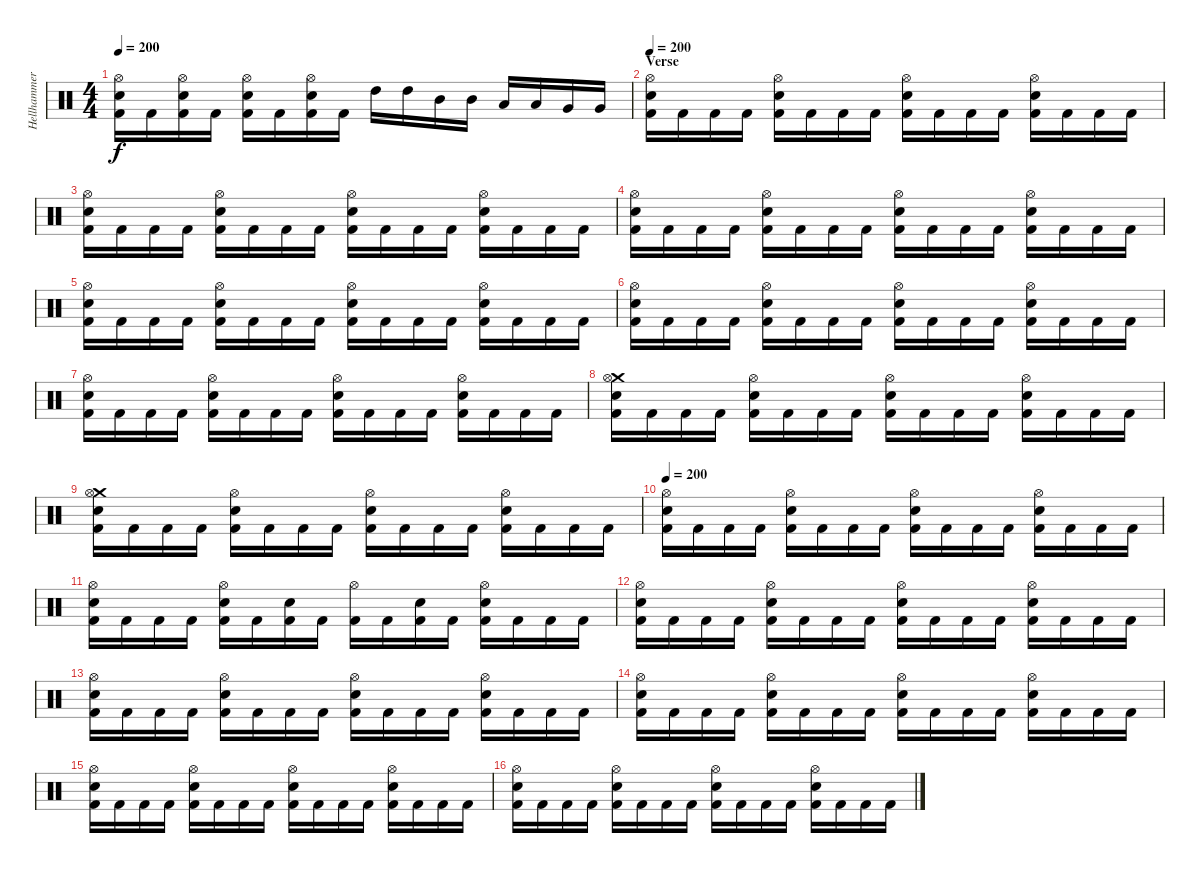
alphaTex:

\track ("Hellhammer" "Hellhammer") {instrument percussion}
\staff {score}
\articulation defaults
\ts (4 4)
\tempo 200
\clef neutral
\ks c
("Hi-Hat (open)" "Electric Snare (hit)" "Kick (hit) 2").16{dy f} "Kick (hit) 2".16 ("Hi-Hat (open)" "Electric Snare (hit)" "Kick (hit) 2").16 "Kick (hit) 2".16 ("Hi-Hat (open)" "Electric Snare (hit)" "Kick (hit) 2").16 "Kick (hit) 2".16 ("Hi-Hat (open)" "Electric Snare (hit)" "Kick (hit) 2").16 "Kick (hit) 2".16 "High Tom (hit)".16 "High Tom (hit)".16 "Mid Tom (hit)".16 "Mid Tom (hit)".16 "Low Tom (hit)".16 "Low Tom (hit)".16 "Very Low Tom (hit)".16 "Very Low Tom (hit)".16 |
\section ("" "Verse")
\tempo 200
("Hi-Hat (open)" "Electric Snare (hit)" "Kick (hit) 2").16 "Kick (hit) 2".16 "Kick (hit) 2".16 "Kick (hit) 2".16 ("Hi-Hat (open)" "Electric Snare (hit)" "Kick (hit) 2").16 "Kick (hit) 2".16 "Kick (hit) 2".16 "Kick (hit) 2".16 ("Hi-Hat (open)" "Electric Snare (hit)" "Kick (hit) 2").16 "Kick (hit) 2".16 "Kick (hit) 2".16 "Kick (hit) 2".16 ("Hi-Hat (open)" "Electric Snare (hit)" "Kick (hit) 2").16 "Kick (hit) 2".16 "Kick (hit) 2".16 "Kick (hit) 2".16 |
("Hi-Hat (open)" "Electric Snare (hit)" "Kick (hit) 2").16 "Kick (hit) 2".16 "Kick (hit) 2".16 "Kick (hit) 2".16 ("Hi-Hat (open)" "Electric Snare (hit)" "Kick (hit) 2").16 "Kick (hit) 2".16 "Kick (hit) 2".16 "Kick (hit) 2".16 ("Hi-Hat (open)" "Electric Snare (hit)" "Kick (hit) 2").16 "Kick (hit) 2".16 "Kick (hit) 2".16 "Kick (hit) 2".16 ("Hi-Hat (open)" "Electric Snare (hit)" "Kick (hit) 2").16 "Kick (hit) 2".16 "Kick (hit) 2".16 "Kick (hit) 2".16 |
("Hi-Hat (open)" "Electric Snare (hit)" "Kick (hit) 2").16 "Kick (hit) 2".16 "Kick (hit) 2".16 "Kick (hit) 2".16 ("Hi-Hat (open)" "Electric Snare (hit)" "Kick (hit) 2").16 "Kick (hit) 2".16 "Kick (hit) 2".16 "Kick (hit) 2".16 ("Hi-Hat (open)" "Electric Snare (hit)" "Kick (hit) 2").16 "Kick (hit) 2".16 "Kick (hit) 2".16 "Kick (hit) 2".16 ("Hi-Hat (open)" "Electric Snare (hit)" "Kick (hit) 2").16 "Kick (hit) 2".16 "Kick (hit) 2".16 "Kick (hit) 2".16 |
("Hi-Hat (open)" "Electric Snare (hit)" "Kick (hit) 2").16 "Kick (hit) 2".16 "Kick (hit) 2".16 "Kick (hit) 2".16 ("Hi-Hat (open)" "Electric Snare (hit)" "Kick (hit) 2").16 "Kick (hit) 2".16 "Kick (hit) 2".16 "Kick (hit) 2".16 ("Hi-Hat (open)" "Electric Snare (hit)" "Kick (hit) 2").16 "Kick (hit) 2".16 "Kick (hit) 2".16 "Kick (hit) 2".16 ("Hi-Hat (open)" "Electric Snare (hit)" "Kick (hit) 2").16 "Kick (hit) 2".16 "Kick (hit) 2".16 "Kick (hit) 2".16 |
("Hi-Hat (open)" "Electric Snare (hit)" "Kick (hit) 2").16 "Kick (hit) 2".16 "Kick (hit) 2".16 "Kick (hit) 2".16 ("Hi-Hat (open)" "Electric Snare (hit)" "Kick (hit) 2").16 "Kick (hit) 2".16 "Kick (hit) 2".16 "Kick (hit) 2".16 ("Hi-Hat (open)" "Electric Snare (hit)" "Kick (hit) 2").16 "Kick (hit) 2".16 "Kick (hit) 2".16 "Kick (hit) 2".16 ("Hi-Hat (open)" "Electric Snare (hit)" "Kick (hit) 2").16 "Kick (hit) 2".16 "Kick (hit) 2".16 "Kick (hit) 2".16 |
("Hi-Hat (open)" "Electric Snare (hit)" "Kick (hit) 2").16 "Kick (hit) 2".16 "Kick (hit) 2".16 "Kick (hit) 2".16 ("Hi-Hat (open)" "Electric Snare (hit)" "Kick (hit) 2").16 "Kick (hit) 2".16 "Kick (hit) 2".16 "Kick (hit) 2".16 ("Hi-Hat (open)" "Electric Snare (hit)" "Kick (hit) 2").16 "Kick (hit) 2".16 "Kick (hit) 2".16 "Kick (hit) 2".16 ("Hi-Hat (open)" "Electric Snare (hit)" "Kick (hit) 2").16 "Kick (hit) 2".16 "Kick (hit) 2".16 "Kick (hit) 2".16 |
("Crash medium (hit)" "Hi-Hat (open)" "Electric Snare (hit)" "Kick (hit) 2").16 "Kick (hit) 2".16 "Kick (hit) 2".16 "Kick (hit) 2".16 ("Hi-Hat (open)" "Electric Snare (hit)" "Kick (hit) 2").16 "Kick (hit) 2".16 "Kick (hit) 2".16 "Kick (hit) 2".16 ("Hi-Hat (open)" "Electric Snare (hit)" "Kick (hit) 2").16 "Kick (hit) 2".16 "Kick (hit) 2".16 "Kick (hit) 2".16 ("Hi-Hat (open)" "Electric Snare (hit)" "Kick (hit) 2").16 "Kick (hit) 2".16 "Kick (hit) 2".16 "Kick (hit) 2".16 |
("Crash medium (hit)" "Hi-Hat (open)" "Electric Snare (hit)" "Kick (hit) 2").16 "Kick (hit) 2".16 "Kick (hit) 2".16 "Kick (hit) 2".16 ("Hi-Hat (open)" "Electric Snare (hit)" "Kick (hit) 2").16 "Kick (hit) 2".16 "Kick (hit) 2".16 "Kick (hit) 2".16 ("Hi-Hat (open)" "Electric Snare (hit)" "Kick (hit) 2").16 "Kick (hit) 2".16 "Kick (hit) 2".16 "Kick (hit) 2".16 ("Hi-Hat (open)" "Electric Snare (hit)" "Kick (hit) 2").16 "Kick (hit) 2".16 "Kick (hit) 2".16 "Kick (hit) 2".16 |
\tempo 200
("Hi-Hat (open)" "Electric Snare (hit)" "Kick (hit) 2").16 "Kick (hit) 2".16 "Kick (hit) 2".16 "Kick (hit) 2".16 ("Hi-Hat (open)" "Electric Snare (hit)" "Kick (hit) 2").16 "Kick (hit) 2".16 "Kick (hit) 2".16 "Kick (hit) 2".16 ("Hi-Hat (open)" "Electric Snare (hit)" "Kick (hit) 2").16 "Kick (hit) 2".16 "Kick (hit) 2".16 "Kick (hit) 2".16 ("Hi-Hat (open)" "Electric Snare (hit)" "Kick (hit) 2").16 "Kick (hit) 2".16 "Kick (hit) 2".16 "Kick (hit) 2".16 |
("Hi-Hat (open)" "Electric Snare (hit)" "Kick (hit) 2").16 "Kick (hit) 2".16 "Kick (hit) 2".16 "Kick (hit) 2".16 ("Hi-Hat (open)" "Electric Snare (hit)" "Kick (hit) 2").16 "Kick (hit) 2".16 ("Electric Snare (hit)" "Kick (hit) 2").16 "Kick (hit) 2".16 ("Hi-Hat (open)" "Kick (hit) 2").16 "Kick (hit) 2".16 ("Electric Snare (hit)" "Kick (hit) 2").16 "Kick (hit) 2".16 ("Hi-Hat (open)" "Electric Snare (hit)" "Kick (hit) 2").16 "Kick (hit) 2".16 "Kick (hit) 2".16 "Kick (hit) 2".16 |
("Hi-Hat (open)" "Electric Snare (hit)" "Kick (hit) 2").16 "Kick (hit) 2".16 "Kick (hit) 2".16 "Kick (hit) 2".16 ("Hi-Hat (open)" "Electric Snare (hit)" "Kick (hit) 2").16 "Kick (hit) 2".16 "Kick (hit) 2".16 "Kick (hit) 2".16 ("Hi-Hat (open)" "Electric Snare (hit)" "Kick (hit) 2").16 "Kick (hit) 2".16 "Kick (hit) 2".16 "Kick (hit) 2".16 ("Hi-Hat (open)" "Electric Snare (hit)" "Kick (hit) 2").16 "Kick (hit) 2".16 "Kick (hit) 2".16 "Kick (hit) 2".16 |
("Hi-Hat (open)" "Electric Snare (hit)" "Kick (hit) 2").16 "Kick (hit) 2".16 "Kick (hit) 2".16 "Kick (hit) 2".16 ("Hi-Hat (open)" "Electric Snare (hit)" "Kick (hit) 2").16 "Kick (hit) 2".16 "Kick (hit) 2".16 "Kick (hit) 2".16 ("Hi-Hat (open)" "Electric Snare (hit)" "Kick (hit) 2").16 "Kick (hit) 2".16 "Kick (hit) 2".16 "Kick (hit) 2".16 ("Hi-Hat (open)" "Electric Snare (hit)" "Kick (hit) 2").16 "Kick (hit) 2".16 "Kick (hit) 2".16 "Kick (hit) 2".16 |
("Hi-Hat (open)" "Electric Snare (hit)" "Kick (hit) 2").16 "Kick (hit) 2".16 "Kick (hit) 2".16 "Kick (hit) 2".16 ("Hi-Hat (open)" "Electric Snare (hit)" "Kick (hit) 2").16 "Kick (hit) 2".16 "Kick (hit) 2".16 "Kick (hit) 2".16 ("Hi-Hat (open)" "Electric Snare (hit)" "Kick (hit) 2").16 "Kick (hit) 2".16 "Kick (hit) 2".16 "Kick (hit) 2".16 ("Hi-Hat (open)" "Electric Snare (hit)" "Kick (hit) 2").16 "Kick (hit) 2".16 "Kick (hit) 2".16 "Kick (hit) 2".16 |
("Hi-Hat (open)" "Electric Snare (hit)" "Kick (hit) 2").16 "Kick (hit) 2".16 "Kick (hit) 2".16 "Kick (hit) 2".16 ("Hi-Hat (open)" "Electric Snare (hit)" "Kick (hit) 2").16 "Kick (hit) 2".16 "Kick (hit) 2".16 "Kick (hit) 2".16 ("Hi-Hat (open)" "Electric Snare (hit)" "Kick (hit) 2").16 "Kick (hit) 2".16 "Kick (hit) 2".16 "Kick (hit) 2".16 ("Hi-Hat (open)" "Electric Snare (hit)" "Kick (hit) 2").16 "Kick (hit) 2".16 "Kick (hit) 2".16 "Kick (hit) 2".16 |
("Hi-Hat (open)" "Electric Snare (hit)" "Kick (hit) 2").16 "Kick (hit) 2".16 "Kick (hit) 2".16 "Kick (hit) 2".16 ("Hi-Hat (open)" "Electric Snare (hit)" "Kick (hit) 2").16 "Kick (hit) 2".16 "Kick (hit) 2".16 "Kick (hit) 2".16 ("Hi-Hat (open)" "Electric Snare (hit)" "Kick (hit) 2").16 "Kick (hit) 2".16 "Kick (hit) 2".16 "Kick (hit) 2".16 ("Hi-Hat (open)" "Electric Snare (hit)" "Kick (hit) 2").16 "Kick (hit) 2".16 "Kick (hit) 2".16 "Kick (hit) 2".16
